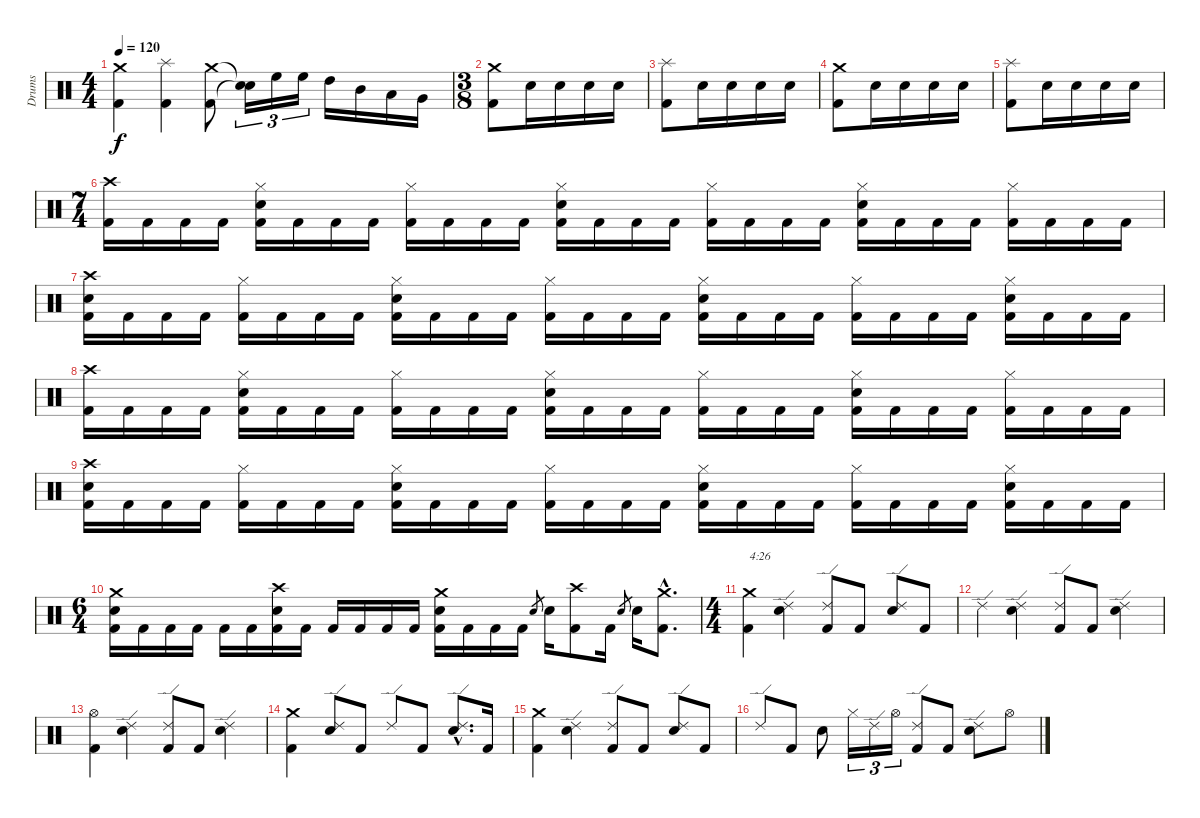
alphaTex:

\track ("Drums" "Drums") {instrument percussion}
\staff {score}
\articulation defaults
\ts (4 4)
\tempo 120
\clef neutral
\ks c
("Crash medium (hit)" "Kick (hit) 2").4{dy f} ("Splash (hit)" "Kick (hit) 2").4 ("Crash medium (hit)" "Kick (hit) 2").8 ("Snare (hit)"{t} "Snare (hit)"{t}).16{tu (3 2)} "High Floor Tom (hit)".16{tu (3 2)} "High Floor Tom (hit)".16{tu (3 2)} "High Tom (hit)".16 "Mid Tom (hit)".16 "Low Tom (hit)".16 "Very Low Tom (hit)".16 |
\ts (3 8)
("Crash medium (hit)" "Kick (hit) 2").8 "Snare (hit) 2".16 "Snare (hit) 2".16 "Snare (hit) 2".16 "Snare (hit) 2".16 |
("Splash (hit)" "Kick (hit) 2").8 "Snare (hit) 2".16 "Snare (hit) 2".16 "Snare (hit) 2".16 "Snare (hit) 2".16 |
("Crash medium (hit)" "Kick (hit) 2").8 "Snare (hit) 2".16 "Snare (hit) 2".16 "Snare (hit) 2".16 "Snare (hit) 2".16 |
("Splash (hit)" "Kick (hit) 2").8 "Snare (hit) 2".16 "Snare (hit) 2".16 "Snare (hit) 2".16 "Snare (hit) 2".16 |
\ts (7 4)
("Crash high (hit)" "Kick (hit) 2").16 "Kick (hit) 2".16 "Kick (hit) 2".16 "Kick (hit) 2".16 ("Hi-Hat (closed)" "Snare (hit) 2" "Kick (hit) 2").16 "Kick (hit) 2".16 "Kick (hit) 2".16 "Kick (hit) 2".16 ("Hi-Hat (closed)" "Kick (hit) 2").16 "Kick (hit) 2".16 "Kick (hit) 2".16 "Kick (hit) 2".16 ("Hi-Hat (closed)" "Snare (hit) 2" "Kick (hit) 2").16 "Kick (hit) 2".16 "Kick (hit) 2".16 "Kick (hit) 2".16 ("Hi-Hat (closed)" "Kick (hit) 2").16 "Kick (hit) 2".16 "Kick (hit) 2".16 "Kick (hit) 2".16 ("Hi-Hat (closed)" "Snare (hit) 2" "Kick (hit) 2").16 "Kick (hit) 2".16 "Kick (hit) 2".16 "Kick (hit) 2".16 ("Hi-Hat (closed)" "Kick (hit) 2").16 "Kick (hit) 2".16 "Kick (hit) 2".16 "Kick (hit) 2".16 |
("Crash high (hit)" "Snare (hit) 2" "Kick (hit) 2").16 "Kick (hit) 2".16 "Kick (hit) 2".16 "Kick (hit) 2".16 ("Hi-Hat (closed)" "Kick (hit) 2").16 "Kick (hit) 2".16 "Kick (hit) 2".16 "Kick (hit) 2".16 ("Hi-Hat (closed)" "Snare (hit) 2" "Kick (hit) 2").16 "Kick (hit) 2".16 "Kick (hit) 2".16 "Kick (hit) 2".16 ("Hi-Hat (closed)" "Kick (hit) 2").16 "Kick (hit) 2".16 "Kick (hit) 2".16 "Kick (hit) 2".16 ("Hi-Hat (closed)" "Snare (hit) 2" "Kick (hit) 2").16 "Kick (hit) 2".16 "Kick (hit) 2".16 "Kick (hit) 2".16 ("Hi-Hat (closed)" "Kick (hit) 2").16 "Kick (hit) 2".16 "Kick (hit) 2".16 "Kick (hit) 2".16 ("Hi-Hat (closed)" "Snare (hit) 2" "Kick (hit) 2").16 "Kick (hit) 2".16 "Kick (hit) 2".16 "Kick (hit) 2".16 |
("Crash high (hit)" "Kick (hit) 2").16 "Kick (hit) 2".16 "Kick (hit) 2".16 "Kick (hit) 2".16 ("Hi-Hat (closed)" "Snare (hit) 2" "Kick (hit) 2").16 "Kick (hit) 2".16 "Kick (hit) 2".16 "Kick (hit) 2".16 ("Hi-Hat (closed)" "Kick (hit) 2").16 "Kick (hit) 2".16 "Kick (hit) 2".16 "Kick (hit) 2".16 ("Hi-Hat (closed)" "Snare (hit) 2" "Kick (hit) 2").16 "Kick (hit) 2".16 "Kick (hit) 2".16 "Kick (hit) 2".16 ("Hi-Hat (closed)" "Kick (hit) 2").16 "Kick (hit) 2".16 "Kick (hit) 2".16 "Kick (hit) 2".16 ("Hi-Hat (closed)" "Snare (hit) 2" "Kick (hit) 2").16 "Kick (hit) 2".16 "Kick (hit) 2".16 "Kick (hit) 2".16 ("Hi-Hat (closed)" "Kick (hit) 2").16 "Kick (hit) 2".16 "Kick (hit) 2".16 "Kick (hit) 2".16 |
("Crash high (hit)" "Snare (hit) 2" "Kick (hit) 2").16 "Kick (hit) 2".16 "Kick (hit) 2".16 "Kick (hit) 2".16 ("Hi-Hat (closed)" "Kick (hit) 2").16 "Kick (hit) 2".16 "Kick (hit) 2".16 "Kick (hit) 2".16 ("Hi-Hat (closed)" "Snare (hit) 2" "Kick (hit) 2").16 "Kick (hit) 2".16 "Kick (hit) 2".16 "Kick (hit) 2".16 ("Hi-Hat (closed)" "Kick (hit) 2").16 "Kick (hit) 2".16 "Kick (hit) 2".16 "Kick (hit) 2".16 ("Hi-Hat (closed)" "Snare (hit) 2" "Kick (hit) 2").16 "Kick (hit) 2".16 "Kick (hit) 2".16 "Kick (hit) 2".16 ("Hi-Hat (closed)" "Kick (hit) 2").16 "Kick (hit) 2".16 "Kick (hit) 2".16 "Kick (hit) 2".16 ("Hi-Hat (closed)" "Snare (hit) 2" "Kick (hit) 2").16 "Kick (hit) 2".16 "Kick (hit) 2".16 "Kick (hit) 2".16 |
\ts (6 4)
("Crash medium (hit)" "Snare (hit) 2" "Kick (hit) 2").16 "Kick (hit) 2".16 "Kick (hit) 2".16 "Kick (hit) 2".16 "Kick (hit) 2".16 "Kick (hit) 2".16 ("Crash high (hit)" "Snare (hit) 2" "Kick (hit) 2").16 "Kick (hit) 2".16 "Kick (hit) 2".16 "Kick (hit) 2".16 "Kick (hit) 2".16 "Kick (hit) 2".16 ("Crash medium (hit)" "Snare (hit) 2" "Kick (hit) 2").16 "Kick (hit) 2".16 "Kick (hit) 2".16 "Kick (hit) 2".16 "Snare (hit) 2".8{gr} "Snare (hit) 2".16 ("Crash high (hit)" "Kick (hit) 2").8 "Kick (hit) 2".16 "Snare (hit) 2".8{gr} "Snare (hit) 2".16 ("Crash medium (hit)"{hac} "Kick (hit) 2"{hac}).8{d} |
\ts (4 4)
("Crash medium (hit)" "Kick (hit) 2").4{txt "4:26"} ("Ride (edge) 2" "Snare (hit) 2").4 ("Ride (edge) 2" "Kick (hit) 2").8 "Kick (hit) 2".8 ("Ride (edge) 2" "Snare (hit) 2").8 "Kick (hit) 2".8 |
"Ride (edge) 2".4 ("Ride (edge) 2" "Snare (hit) 2").4 ("Ride (edge) 2" "Kick (hit) 2").8 "Kick (hit) 2".8 ("Ride (edge) 2" "Snare (hit) 2").4 |
("Hi-Hat (open)" "Kick (hit) 2").4 ("Ride (edge) 2" "Snare (hit) 2").4 ("Ride (edge) 2" "Kick (hit) 2").8 "Kick (hit) 2".8 ("Ride (edge) 2" "Snare (hit) 2").4 |
("Crash medium (hit)" "Kick (hit) 2").4 ("Ride (edge) 2" "Snare (hit) 2").8 "Kick (hit) 2".8 "Ride (edge) 2".8 "Kick (hit) 2".8 ("Ride (edge) 2"{hac} "Snare (hit) 2"{hac}).8{d} "Kick (hit) 2".16 |
("Crash medium (hit)" "Kick (hit) 2").4 ("Ride (edge) 2" "Snare (hit) 2").4 ("Ride (edge) 2" "Kick (hit) 2").8 "Kick (hit) 2".8 ("Ride (edge) 2" "Snare (hit) 2").8 "Kick (hit) 2".8 |
"Ride (edge) 2".8 "Kick (hit) 2".8 "Snare (hit) 2".8 "Hi-Hat (closed)".16{tu (3 2)} "Ride (edge) 2".16{tu (3 2)} "Hi-Hat (open)".16{tu (3 2)} ("Ride (edge) 2" "Kick (hit) 2").8 "Kick (hit) 2".8 ("Ride (edge) 2" "Snare (hit) 2").8 "Hi-Hat (open)".8
